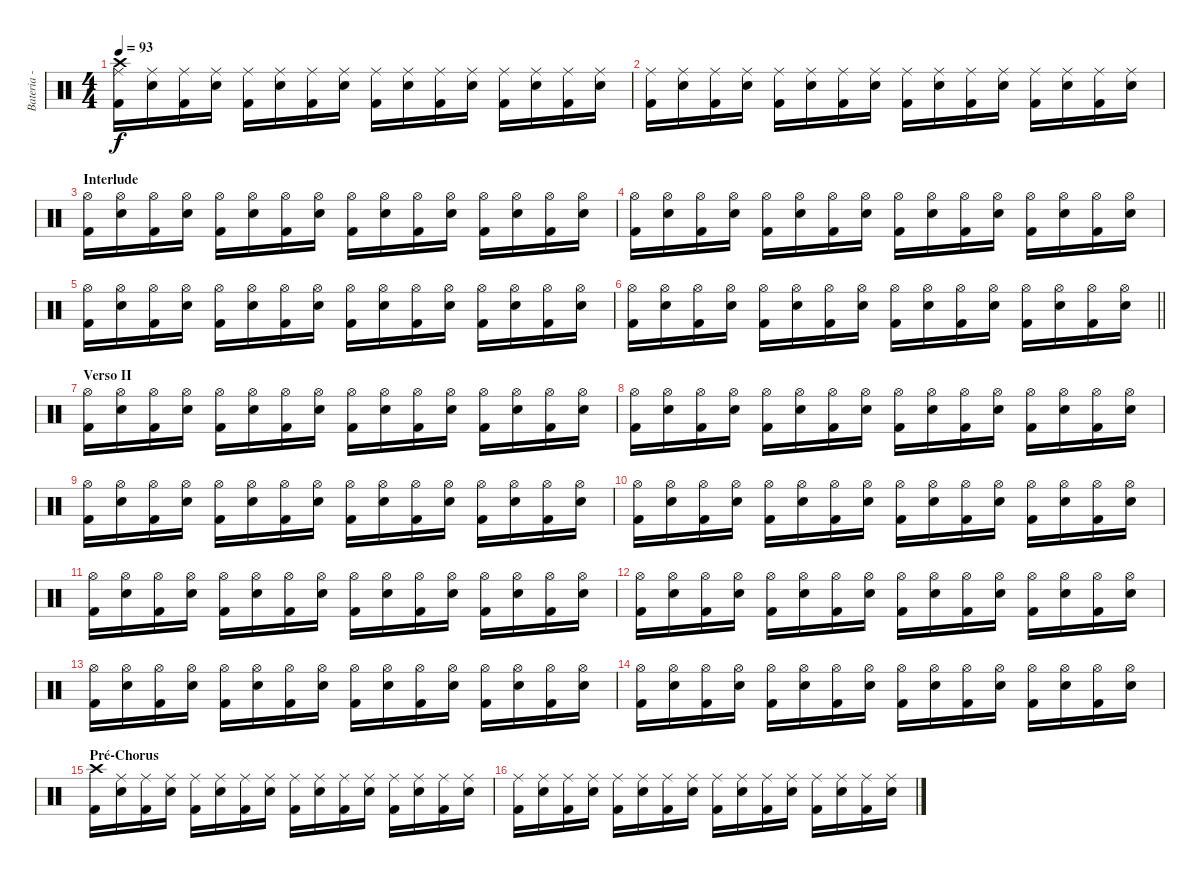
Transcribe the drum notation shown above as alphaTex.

\track ("Bateria - Larzon" "Bateria - ") {instrument percussion}
\staff {score}
\articulation defaults
\ts (4 4)
\tempo 93
\clef neutral
\ks c
("Kick (hit) 2" "Crash high (hit)" "Ride (middle)").16{dy f} ("Electric Snare (hit)" "Ride (middle)").16 ("Kick (hit) 2" "Ride (middle)").16 ("Electric Snare (hit)" "Ride (middle)").16 ("Kick (hit) 2" "Ride (middle)").16 ("Electric Snare (hit)" "Ride (middle)").16 ("Kick (hit) 2" "Ride (middle)").16 ("Electric Snare (hit)" "Ride (middle)").16 ("Kick (hit) 2" "Ride (middle)").16 ("Electric Snare (hit)" "Ride (middle)").16 ("Kick (hit) 2" "Ride (middle)").16 ("Electric Snare (hit)" "Ride (middle)").16 ("Kick (hit) 2" "Ride (middle)").16 ("Electric Snare (hit)" "Ride (middle)").16 ("Kick (hit) 2" "Ride (middle)").16 ("Electric Snare (hit)" "Ride (middle)").16 |
("Kick (hit) 2" "Ride (middle)").16 ("Electric Snare (hit)" "Ride (middle)").16 ("Kick (hit) 2" "Ride (middle)").16 ("Electric Snare (hit)" "Ride (middle)").16 ("Kick (hit) 2" "Ride (middle)").16 ("Electric Snare (hit)" "Ride (middle)").16 ("Kick (hit) 2" "Ride (middle)").16 ("Electric Snare (hit)" "Ride (middle)").16 ("Kick (hit) 2" "Ride (middle)").16 ("Electric Snare (hit)" "Ride (middle)").16 ("Kick (hit) 2" "Ride (middle)").16 ("Electric Snare (hit)" "Ride (middle)").16 ("Kick (hit) 2" "Ride (middle)").16 ("Electric Snare (hit)" "Ride (middle)").16 ("Kick (hit) 2" "Ride (middle)").16 ("Electric Snare (hit)" "Ride (middle)").16 |
\section ("" "Interlude")
("Kick (hit) 2" "Hi-Hat (open)").16 ("Electric Snare (hit)" "Hi-Hat (open)").16 ("Kick (hit) 2" "Hi-Hat (open)").16 ("Electric Snare (hit)" "Hi-Hat (open)").16 ("Kick (hit) 2" "Hi-Hat (open)").16 ("Electric Snare (hit)" "Hi-Hat (open)").16 ("Kick (hit) 2" "Hi-Hat (open)").16 ("Electric Snare (hit)" "Hi-Hat (open)").16 ("Kick (hit) 2" "Hi-Hat (open)").16 ("Electric Snare (hit)" "Hi-Hat (open)").16 ("Kick (hit) 2" "Hi-Hat (open)").16 ("Electric Snare (hit)" "Hi-Hat (open)").16 ("Kick (hit) 2" "Hi-Hat (open)").16 ("Electric Snare (hit)" "Hi-Hat (open)").16 ("Kick (hit) 2" "Hi-Hat (open)").16 ("Electric Snare (hit)" "Hi-Hat (open)").16 |
("Kick (hit) 2" "Hi-Hat (open)").16 ("Electric Snare (hit)" "Hi-Hat (open)").16 ("Kick (hit) 2" "Hi-Hat (open)").16 ("Electric Snare (hit)" "Hi-Hat (open)").16 ("Kick (hit) 2" "Hi-Hat (open)").16 ("Electric Snare (hit)" "Hi-Hat (open)").16 ("Kick (hit) 2" "Hi-Hat (open)").16 ("Electric Snare (hit)" "Hi-Hat (open)").16 ("Kick (hit) 2" "Hi-Hat (open)").16 ("Electric Snare (hit)" "Hi-Hat (open)").16 ("Kick (hit) 2" "Hi-Hat (open)").16 ("Electric Snare (hit)" "Hi-Hat (open)").16 ("Kick (hit) 2" "Hi-Hat (open)").16 ("Electric Snare (hit)" "Hi-Hat (open)").16 ("Kick (hit) 2" "Hi-Hat (open)").16 ("Electric Snare (hit)" "Hi-Hat (open)").16 |
("Kick (hit) 2" "Hi-Hat (open)").16 ("Electric Snare (hit)" "Hi-Hat (open)").16 ("Kick (hit) 2" "Hi-Hat (open)").16 ("Electric Snare (hit)" "Hi-Hat (open)").16 ("Kick (hit) 2" "Hi-Hat (open)").16 ("Electric Snare (hit)" "Hi-Hat (open)").16 ("Kick (hit) 2" "Hi-Hat (open)").16 ("Electric Snare (hit)" "Hi-Hat (open)").16 ("Kick (hit) 2" "Hi-Hat (open)").16 ("Electric Snare (hit)" "Hi-Hat (open)").16 ("Kick (hit) 2" "Hi-Hat (open)").16 ("Electric Snare (hit)" "Hi-Hat (open)").16 ("Kick (hit) 2" "Hi-Hat (open)").16 ("Electric Snare (hit)" "Hi-Hat (open)").16 ("Kick (hit) 2" "Hi-Hat (open)").16 ("Electric Snare (hit)" "Hi-Hat (open)").16 |
\barLineRight lightlight
("Kick (hit) 2" "Hi-Hat (open)").16 ("Electric Snare (hit)" "Hi-Hat (open)").16 ("Kick (hit) 2" "Hi-Hat (open)").16 ("Electric Snare (hit)" "Hi-Hat (open)").16 ("Kick (hit) 2" "Hi-Hat (open)").16 ("Electric Snare (hit)" "Hi-Hat (open)").16 ("Kick (hit) 2" "Hi-Hat (open)").16 ("Electric Snare (hit)" "Hi-Hat (open)").16 ("Kick (hit) 2" "Hi-Hat (open)").16 ("Electric Snare (hit)" "Hi-Hat (open)").16 ("Kick (hit) 2" "Hi-Hat (open)").16 ("Electric Snare (hit)" "Hi-Hat (open)").16 ("Kick (hit) 2" "Hi-Hat (open)").16 ("Electric Snare (hit)" "Hi-Hat (open)").16 ("Kick (hit) 2" "Hi-Hat (open)").16 ("Electric Snare (hit)" "Hi-Hat (open)").16 |
\section ("" "Verso II")
("Kick (hit) 2" "Hi-Hat (open)").16 ("Electric Snare (hit)" "Hi-Hat (open)").16 ("Kick (hit) 2" "Hi-Hat (open)").16 ("Electric Snare (hit)" "Hi-Hat (open)").16 ("Kick (hit) 2" "Hi-Hat (open)").16 ("Electric Snare (hit)" "Hi-Hat (open)").16 ("Kick (hit) 2" "Hi-Hat (open)").16 ("Electric Snare (hit)" "Hi-Hat (open)").16 ("Kick (hit) 2" "Hi-Hat (open)").16 ("Electric Snare (hit)" "Hi-Hat (open)").16 ("Kick (hit) 2" "Hi-Hat (open)").16 ("Electric Snare (hit)" "Hi-Hat (open)").16 ("Kick (hit) 2" "Hi-Hat (open)").16 ("Electric Snare (hit)" "Hi-Hat (open)").16 ("Kick (hit) 2" "Hi-Hat (open)").16 ("Electric Snare (hit)" "Hi-Hat (open)").16 |
("Kick (hit) 2" "Hi-Hat (open)").16 ("Electric Snare (hit)" "Hi-Hat (open)").16 ("Kick (hit) 2" "Hi-Hat (open)").16 ("Electric Snare (hit)" "Hi-Hat (open)").16 ("Kick (hit) 2" "Hi-Hat (open)").16 ("Electric Snare (hit)" "Hi-Hat (open)").16 ("Kick (hit) 2" "Hi-Hat (open)").16 ("Electric Snare (hit)" "Hi-Hat (open)").16 ("Kick (hit) 2" "Hi-Hat (open)").16 ("Electric Snare (hit)" "Hi-Hat (open)").16 ("Kick (hit) 2" "Hi-Hat (open)").16 ("Electric Snare (hit)" "Hi-Hat (open)").16 ("Kick (hit) 2" "Hi-Hat (open)").16 ("Electric Snare (hit)" "Hi-Hat (open)").16 ("Kick (hit) 2" "Hi-Hat (open)").16 ("Electric Snare (hit)" "Hi-Hat (open)").16 |
("Kick (hit) 2" "Hi-Hat (open)").16 ("Electric Snare (hit)" "Hi-Hat (open)").16 ("Kick (hit) 2" "Hi-Hat (open)").16 ("Electric Snare (hit)" "Hi-Hat (open)").16 ("Kick (hit) 2" "Hi-Hat (open)").16 ("Electric Snare (hit)" "Hi-Hat (open)").16 ("Kick (hit) 2" "Hi-Hat (open)").16 ("Electric Snare (hit)" "Hi-Hat (open)").16 ("Kick (hit) 2" "Hi-Hat (open)").16 ("Electric Snare (hit)" "Hi-Hat (open)").16 ("Kick (hit) 2" "Hi-Hat (open)").16 ("Electric Snare (hit)" "Hi-Hat (open)").16 ("Kick (hit) 2" "Hi-Hat (open)").16 ("Electric Snare (hit)" "Hi-Hat (open)").16 ("Kick (hit) 2" "Hi-Hat (open)").16 ("Electric Snare (hit)" "Hi-Hat (open)").16 |
("Kick (hit) 2" "Hi-Hat (open)").16 ("Electric Snare (hit)" "Hi-Hat (open)").16 ("Kick (hit) 2" "Hi-Hat (open)").16 ("Electric Snare (hit)" "Hi-Hat (open)").16 ("Kick (hit) 2" "Hi-Hat (open)").16 ("Electric Snare (hit)" "Hi-Hat (open)").16 ("Kick (hit) 2" "Hi-Hat (open)").16 ("Electric Snare (hit)" "Hi-Hat (open)").16 ("Kick (hit) 2" "Hi-Hat (open)").16 ("Electric Snare (hit)" "Hi-Hat (open)").16 ("Kick (hit) 2" "Hi-Hat (open)").16 ("Electric Snare (hit)" "Hi-Hat (open)").16 ("Kick (hit) 2" "Hi-Hat (open)").16 ("Electric Snare (hit)" "Hi-Hat (open)").16 ("Kick (hit) 2" "Hi-Hat (open)").16 ("Electric Snare (hit)" "Hi-Hat (open)").16 |
("Kick (hit) 2" "Hi-Hat (open)").16 ("Electric Snare (hit)" "Hi-Hat (open)").16 ("Kick (hit) 2" "Hi-Hat (open)").16 ("Electric Snare (hit)" "Hi-Hat (open)").16 ("Kick (hit) 2" "Hi-Hat (open)").16 ("Electric Snare (hit)" "Hi-Hat (open)").16 ("Kick (hit) 2" "Hi-Hat (open)").16 ("Electric Snare (hit)" "Hi-Hat (open)").16 ("Kick (hit) 2" "Hi-Hat (open)").16 ("Electric Snare (hit)" "Hi-Hat (open)").16 ("Kick (hit) 2" "Hi-Hat (open)").16 ("Electric Snare (hit)" "Hi-Hat (open)").16 ("Kick (hit) 2" "Hi-Hat (open)").16 ("Electric Snare (hit)" "Hi-Hat (open)").16 ("Kick (hit) 2" "Hi-Hat (open)").16 ("Electric Snare (hit)" "Hi-Hat (open)").16 |
("Kick (hit) 2" "Hi-Hat (open)").16 ("Electric Snare (hit)" "Hi-Hat (open)").16 ("Kick (hit) 2" "Hi-Hat (open)").16 ("Electric Snare (hit)" "Hi-Hat (open)").16 ("Kick (hit) 2" "Hi-Hat (open)").16 ("Electric Snare (hit)" "Hi-Hat (open)").16 ("Kick (hit) 2" "Hi-Hat (open)").16 ("Electric Snare (hit)" "Hi-Hat (open)").16 ("Kick (hit) 2" "Hi-Hat (open)").16 ("Electric Snare (hit)" "Hi-Hat (open)").16 ("Kick (hit) 2" "Hi-Hat (open)").16 ("Electric Snare (hit)" "Hi-Hat (open)").16 ("Kick (hit) 2" "Hi-Hat (open)").16 ("Electric Snare (hit)" "Hi-Hat (open)").16 ("Kick (hit) 2" "Hi-Hat (open)").16 ("Electric Snare (hit)" "Hi-Hat (open)").16 |
("Kick (hit) 2" "Hi-Hat (open)").16 ("Electric Snare (hit)" "Hi-Hat (open)").16 ("Kick (hit) 2" "Hi-Hat (open)").16 ("Electric Snare (hit)" "Hi-Hat (open)").16 ("Kick (hit) 2" "Hi-Hat (open)").16 ("Electric Snare (hit)" "Hi-Hat (open)").16 ("Kick (hit) 2" "Hi-Hat (open)").16 ("Electric Snare (hit)" "Hi-Hat (open)").16 ("Kick (hit) 2" "Hi-Hat (open)").16 ("Electric Snare (hit)" "Hi-Hat (open)").16 ("Kick (hit) 2" "Hi-Hat (open)").16 ("Electric Snare (hit)" "Hi-Hat (open)").16 ("Kick (hit) 2" "Hi-Hat (open)").16 ("Electric Snare (hit)" "Hi-Hat (open)").16 ("Kick (hit) 2" "Hi-Hat (open)").16 ("Electric Snare (hit)" "Hi-Hat (open)").16 |
("Kick (hit) 2" "Hi-Hat (open)").16 ("Electric Snare (hit)" "Hi-Hat (open)").16 ("Kick (hit) 2" "Hi-Hat (open)").16 ("Electric Snare (hit)" "Hi-Hat (open)").16 ("Kick (hit) 2" "Hi-Hat (open)").16 ("Electric Snare (hit)" "Hi-Hat (open)").16 ("Kick (hit) 2" "Hi-Hat (open)").16 ("Electric Snare (hit)" "Hi-Hat (open)").16 ("Kick (hit) 2" "Hi-Hat (open)").16 ("Electric Snare (hit)" "Hi-Hat (open)").16 ("Kick (hit) 2" "Hi-Hat (open)").16 ("Electric Snare (hit)" "Hi-Hat (open)").16 ("Kick (hit) 2" "Hi-Hat (open)").16 ("Electric Snare (hit)" "Hi-Hat (open)").16 ("Kick (hit) 2" "Hi-Hat (open)").16 ("Electric Snare (hit)" "Hi-Hat (open)").16 |
\section ("" "Pré-Chorus")
("Kick (hit) 2" "Crash high (hit)").16 ("Electric Snare (hit)" "Ride (middle)").16 ("Kick (hit) 2" "Ride (middle)").16 ("Electric Snare (hit)" "Ride (middle)").16 ("Kick (hit) 2" "Ride (middle)").16 ("Electric Snare (hit)" "Ride (middle)").16 ("Kick (hit) 2" "Ride (middle)").16 ("Electric Snare (hit)" "Ride (middle)").16 ("Kick (hit) 2" "Ride (middle)").16 ("Electric Snare (hit)" "Ride (middle)").16 ("Kick (hit) 2" "Ride (middle)").16 ("Electric Snare (hit)" "Ride (middle)").16 ("Kick (hit) 2" "Ride (middle)").16 ("Electric Snare (hit)" "Ride (middle)").16 ("Kick (hit) 2" "Ride (middle)").16 ("Electric Snare (hit)" "Ride (middle)").16 |
("Kick (hit) 2" "Ride (middle)").16 ("Electric Snare (hit)" "Ride (middle)").16 ("Kick (hit) 2" "Ride (middle)").16 ("Electric Snare (hit)" "Ride (middle)").16 ("Kick (hit) 2" "Ride (middle)").16 ("Electric Snare (hit)" "Ride (middle)").16 ("Kick (hit) 2" "Ride (middle)").16 ("Electric Snare (hit)" "Ride (middle)").16 ("Kick (hit) 2" "Ride (middle)").16 ("Electric Snare (hit)" "Ride (middle)").16 ("Kick (hit) 2" "Ride (middle)").16 ("Electric Snare (hit)" "Ride (middle)").16 ("Kick (hit) 2" "Ride (middle)").16 ("Electric Snare (hit)" "Ride (middle)").16 ("Kick (hit) 2" "Ride (middle)").16 ("Electric Snare (hit)" "Ride (middle)").16
